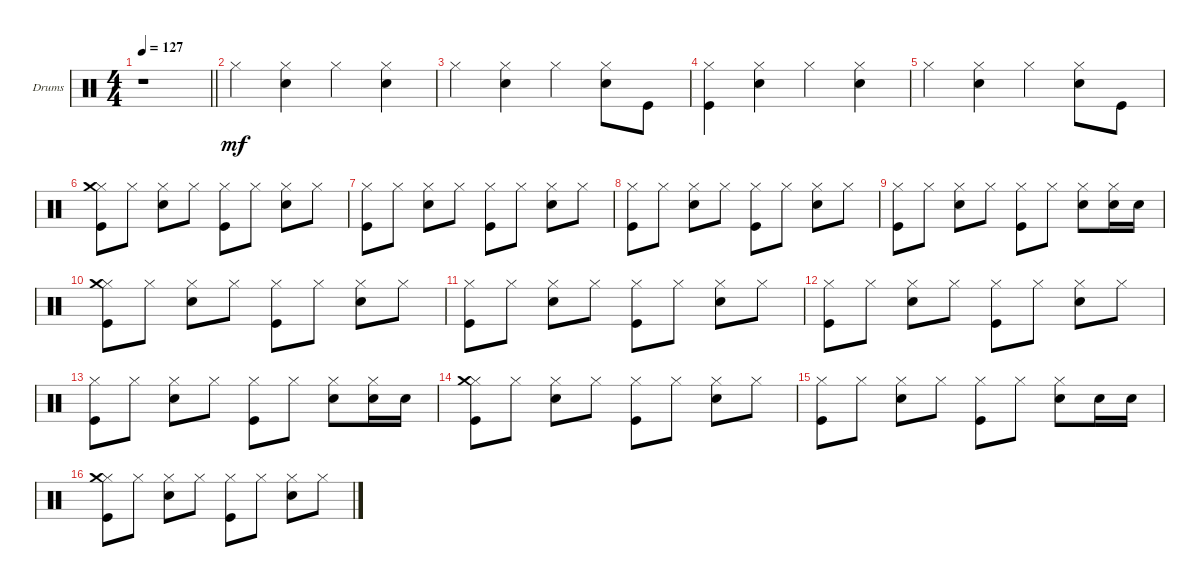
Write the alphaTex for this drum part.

\defaultSystemsLayout 4
\bracketExtendMode groupsimilarinstruments
\firstSystemTrackNameOrientation horizontal
\otherSystemsTrackNameOrientation horizontal
\track ("Drumkit" "Drums") {instrument percussion}
\staff {score}
\articulation defaults
\ts (4 4)
\tempo 127
\clef neutral
\scale
0.375465
\barLineRight lightlight
\ks c
r.1{dy mf} |
\scale
0.208178 "Hi-Hat (closed)".4 ("Hi-Hat (closed)" "Snare (hit) 2").4 "Hi-Hat (closed)".4 ("Hi-Hat (closed)" "Snare (hit) 2").4 |
\scale
0.208178 "Hi-Hat (closed)".4 ("Hi-Hat (closed)" "Snare (hit) 2").4 "Hi-Hat (closed)".4 ("Hi-Hat (closed)" "Snare (hit) 2").8 "Kick (hit)".8 |
\scale
0.208178 ("Kick (hit)" "Hi-Hat (closed)").4 ("Hi-Hat (closed)" "Snare (hit) 2").4 "Hi-Hat (closed)".4 ("Hi-Hat (closed)" "Snare (hit) 2").4 |
\scale
0.25 "Hi-Hat (closed)".4 ("Hi-Hat (closed)" "Snare (hit) 2").4 "Hi-Hat (closed)".4 ("Hi-Hat (closed)" "Snare (hit) 2").8 "Kick (hit)".8 |
\scale
0.25 ("Kick (hit)" "Hi-Hat (closed)" "Crash medium (hit)").8 "Hi-Hat (closed)".8 ("Snare (hit) 2" "Hi-Hat (closed)").8 "Hi-Hat (closed)".8 ("Kick (hit)" "Hi-Hat (closed)").8 "Hi-Hat (closed)".8 ("Snare (hit) 2" "Hi-Hat (closed)").8 "Hi-Hat (closed)".8 |
\scale
0.25 ("Kick (hit)" "Hi-Hat (closed)").8 "Hi-Hat (closed)".8 ("Snare (hit) 2" "Hi-Hat (closed)").8 "Hi-Hat (closed)".8 ("Kick (hit)" "Hi-Hat (closed)").8 "Hi-Hat (closed)".8 ("Snare (hit) 2" "Hi-Hat (closed)").8 "Hi-Hat (closed)".8 |
\scale
0.25 ("Kick (hit)" "Hi-Hat (closed)").8 "Hi-Hat (closed)".8 ("Snare (hit) 2" "Hi-Hat (closed)").8 "Hi-Hat (closed)".8 ("Kick (hit)" "Hi-Hat (closed)").8 "Hi-Hat (closed)".8 ("Snare (hit) 2" "Hi-Hat (closed)").8 "Hi-Hat (closed)".8 |
\scale
0.25 ("Kick (hit)" "Hi-Hat (closed)").8 "Hi-Hat (closed)".8 ("Snare (hit) 2" "Hi-Hat (closed)").8 "Hi-Hat (closed)".8 ("Kick (hit)" "Hi-Hat (closed)").8 "Hi-Hat (closed)".8 ("Snare (hit) 2" "Hi-Hat (closed)").8 ("Snare (hit) 2" "Hi-Hat (closed)").16 "Snare (hit) 2".16 |
\scale
0.25 ("Kick (hit)" "Hi-Hat (closed)" "Crash medium (hit)").8 "Hi-Hat (closed)".8 ("Snare (hit) 2" "Hi-Hat (closed)").8 "Hi-Hat (closed)".8 ("Kick (hit)" "Hi-Hat (closed)").8 "Hi-Hat (closed)".8 ("Snare (hit) 2" "Hi-Hat (closed)").8 "Hi-Hat (closed)".8 |
\scale
0.25 ("Kick (hit)" "Hi-Hat (closed)").8 "Hi-Hat (closed)".8 ("Snare (hit) 2" "Hi-Hat (closed)").8 "Hi-Hat (closed)".8 ("Kick (hit)" "Hi-Hat (closed)").8 "Hi-Hat (closed)".8 ("Snare (hit) 2" "Hi-Hat (closed)").8 "Hi-Hat (closed)".8 |
\scale
0.25 ("Kick (hit)" "Hi-Hat (closed)").8 "Hi-Hat (closed)".8 ("Snare (hit) 2" "Hi-Hat (closed)").8 "Hi-Hat (closed)".8 ("Kick (hit)" "Hi-Hat (closed)").8 "Hi-Hat (closed)".8 ("Snare (hit) 2" "Hi-Hat (closed)").8 "Hi-Hat (closed)".8 |
\scale
0.25 ("Kick (hit)" "Hi-Hat (closed)").8 "Hi-Hat (closed)".8 ("Snare (hit) 2" "Hi-Hat (closed)").8 "Hi-Hat (closed)".8 ("Kick (hit)" "Hi-Hat (closed)").8 "Hi-Hat (closed)".8 ("Snare (hit) 2" "Hi-Hat (closed)").8 ("Snare (hit) 2" "Hi-Hat (closed)").16 "Snare (hit) 2".16 |
\scale
0.25 ("Kick (hit)" "Hi-Hat (closed)" "Crash medium (hit)").8 "Hi-Hat (closed)".8 ("Snare (hit) 2" "Hi-Hat (closed)").8 "Hi-Hat (closed)".8 ("Kick (hit)" "Hi-Hat (closed)").8 "Hi-Hat (closed)".8 ("Snare (hit) 2" "Hi-Hat (closed)").8 "Hi-Hat (closed)".8 |
\scale
0.25 ("Kick (hit)" "Hi-Hat (closed)").8 "Hi-Hat (closed)".8 ("Snare (hit) 2" "Hi-Hat (closed)").8 "Hi-Hat (closed)".8 ("Kick (hit)" "Hi-Hat (closed)").8 "Hi-Hat (closed)".8 ("Snare (hit) 2" "Hi-Hat (closed)").8 "Snare (hit) 2".16 "Snare (hit) 2".16 |
\scale
0.25 ("Kick (hit)" "Hi-Hat (closed)" "Crash medium (hit)").8 "Hi-Hat (closed)".8 ("Snare (hit) 2" "Hi-Hat (closed)").8 "Hi-Hat (closed)".8 ("Kick (hit)" "Hi-Hat (closed)").8 "Hi-Hat (closed)".8 ("Snare (hit) 2" "Hi-Hat (closed)").8 "Hi-Hat (closed)".8
